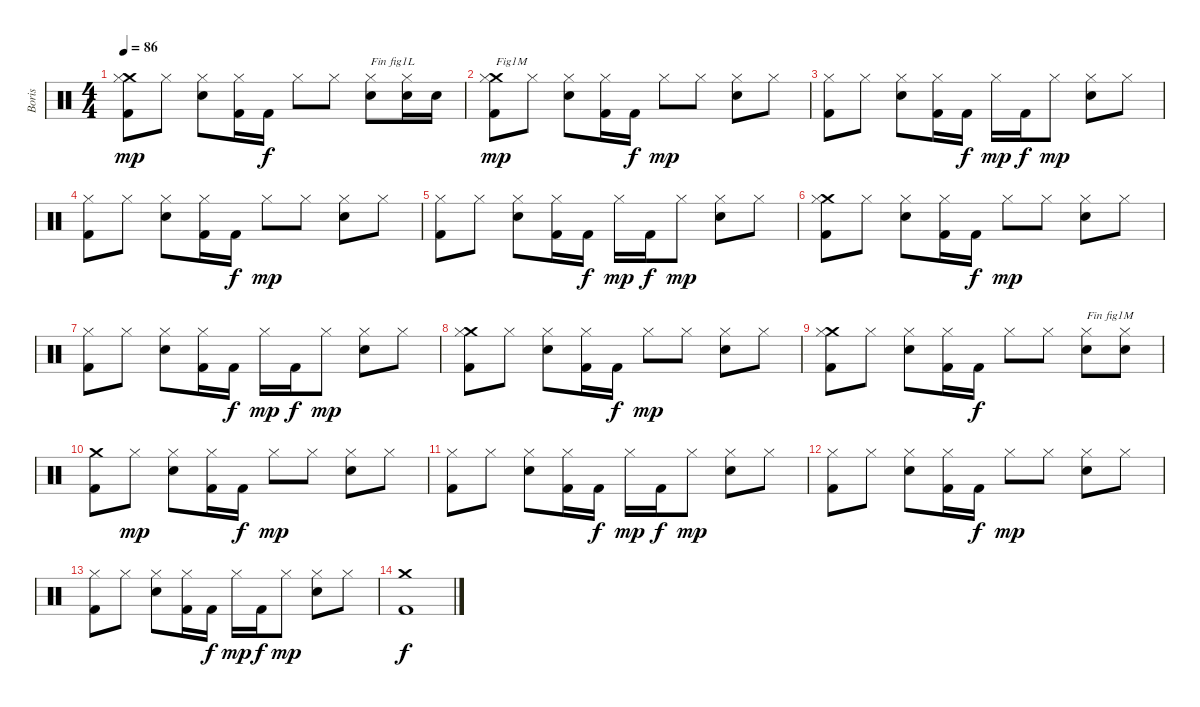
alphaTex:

\track ("Boris" "Boris") {instrument percussion}
\staff {score}
\articulation defaults
\ts (4 4)
\tempo 86
\clef neutral
\ks c
("Kick (hit) 2" "Crash medium (hit)" "Hi-Hat (closed)").8{dy mp} "Hi-Hat (closed)".8 ("Electric Snare (hit)" "Hi-Hat (closed)").8 ("Kick (hit) 2" "Hi-Hat (closed)").16 "Kick (hit) 2".16{dy f} "Hi-Hat (closed)".8 "Hi-Hat (closed)".8 ("Electric Snare (hit)" "Hi-Hat (closed)").8{txt "Fin fig1L"} ("Electric Snare (hit)" "Hi-Hat (closed)").16 "Electric Snare (hit)".16 |
("Kick (hit) 2" "Crash medium (hit)" "Hi-Hat (closed)").8{txt "Fig1M" dy mp} "Hi-Hat (closed)".8 ("Electric Snare (hit)" "Hi-Hat (closed)").8 ("Kick (hit) 2" "Hi-Hat (closed)").16 "Kick (hit) 2".16{dy f} "Hi-Hat (closed)".8{dy mp} "Hi-Hat (closed)".8 ("Electric Snare (hit)" "Hi-Hat (closed)").8 "Hi-Hat (closed)".8 |
("Kick (hit) 2" "Hi-Hat (closed)").8 "Hi-Hat (closed)".8 ("Electric Snare (hit)" "Hi-Hat (closed)").8 ("Kick (hit) 2" "Hi-Hat (closed)").16 "Kick (hit) 2".16{dy f} "Hi-Hat (closed)".16{dy mp} "Kick (hit) 2".16{dy f} "Hi-Hat (closed)".8{dy mp} ("Electric Snare (hit)" "Hi-Hat (closed)").8 "Hi-Hat (closed)".8 |
("Kick (hit) 2" "Hi-Hat (closed)").8 "Hi-Hat (closed)".8 ("Electric Snare (hit)" "Hi-Hat (closed)").8 ("Kick (hit) 2" "Hi-Hat (closed)").16 "Kick (hit) 2".16{dy f} "Hi-Hat (closed)".8{dy mp} "Hi-Hat (closed)".8 ("Electric Snare (hit)" "Hi-Hat (closed)").8 "Hi-Hat (closed)".8 |
("Kick (hit) 2" "Hi-Hat (closed)").8 "Hi-Hat (closed)".8 ("Electric Snare (hit)" "Hi-Hat (closed)").8 ("Kick (hit) 2" "Hi-Hat (closed)").16 "Kick (hit) 2".16{dy f} "Hi-Hat (closed)".16{dy mp} "Kick (hit) 2".16{dy f} "Hi-Hat (closed)".8{dy mp} ("Electric Snare (hit)" "Hi-Hat (closed)").8 "Hi-Hat (closed)".8 |
("Kick (hit) 2" "Crash medium (hit)" "Hi-Hat (closed)").8 "Hi-Hat (closed)".8 ("Electric Snare (hit)" "Hi-Hat (closed)").8 ("Kick (hit) 2" "Hi-Hat (closed)").16 "Kick (hit) 2".16{dy f} "Hi-Hat (closed)".8{dy mp} "Hi-Hat (closed)".8 ("Electric Snare (hit)" "Hi-Hat (closed)").8 "Hi-Hat (closed)".8 |
("Kick (hit) 2" "Hi-Hat (closed)").8 "Hi-Hat (closed)".8 ("Electric Snare (hit)" "Hi-Hat (closed)").8 ("Kick (hit) 2" "Hi-Hat (closed)").16 "Kick (hit) 2".16{dy f} "Hi-Hat (closed)".16{dy mp} "Kick (hit) 2".16{dy f} "Hi-Hat (closed)".8{dy mp} ("Electric Snare (hit)" "Hi-Hat (closed)").8 "Hi-Hat (closed)".8 |
("Kick (hit) 2" "Crash medium (hit)" "Hi-Hat (closed)").8 "Hi-Hat (closed)".8 ("Electric Snare (hit)" "Hi-Hat (closed)").8 ("Kick (hit) 2" "Hi-Hat (closed)").16 "Kick (hit) 2".16{dy f} "Hi-Hat (closed)".8{dy mp} "Hi-Hat (closed)".8 ("Electric Snare (hit)" "Hi-Hat (closed)").8 "Hi-Hat (closed)".8 |
("Kick (hit) 2" "Crash medium (hit)" "Hi-Hat (closed)").8 "Hi-Hat (closed)".8 ("Electric Snare (hit)" "Hi-Hat (closed)").8 ("Kick (hit) 2" "Hi-Hat (closed)").16 "Kick (hit) 2".16{dy f} "Hi-Hat (closed)".8 "Hi-Hat (closed)".8 ("Electric Snare (hit)" "Hi-Hat (closed)").8{txt "Fin fig1M"} ("Electric Snare (hit)" "Hi-Hat (closed)").8 |
("Kick (hit) 2" "Crash medium (hit)").8 "Hi-Hat (closed)".8{dy mp} ("Electric Snare (hit)" "Hi-Hat (closed)").8 ("Kick (hit) 2" "Hi-Hat (closed)").16 "Kick (hit) 2".16{dy f} "Hi-Hat (closed)".8{dy mp} "Hi-Hat (closed)".8 ("Electric Snare (hit)" "Hi-Hat (closed)").8 "Hi-Hat (closed)".8 |
("Kick (hit) 2" "Hi-Hat (closed)").8 "Hi-Hat (closed)".8 ("Electric Snare (hit)" "Hi-Hat (closed)").8 ("Kick (hit) 2" "Hi-Hat (closed)").16 "Kick (hit) 2".16{dy f} "Hi-Hat (closed)".16{dy mp} "Kick (hit) 2".16{dy f} "Hi-Hat (closed)".8{dy mp} ("Electric Snare (hit)" "Hi-Hat (closed)").8 "Hi-Hat (closed)".8 |
("Kick (hit) 2" "Hi-Hat (closed)").8 "Hi-Hat (closed)".8 ("Electric Snare (hit)" "Hi-Hat (closed)").8 ("Kick (hit) 2" "Hi-Hat (closed)").16 "Kick (hit) 2".16{dy f} "Hi-Hat (closed)".8{dy mp} "Hi-Hat (closed)".8 ("Electric Snare (hit)" "Hi-Hat (closed)").8 "Hi-Hat (closed)".8 |
("Kick (hit) 2" "Hi-Hat (closed)").8 "Hi-Hat (closed)".8 ("Electric Snare (hit)" "Hi-Hat (closed)").8 ("Kick (hit) 2" "Hi-Hat (closed)").16 "Kick (hit) 2".16{dy f} "Hi-Hat (closed)".16{dy mp} "Kick (hit) 2".16{dy f} "Hi-Hat (closed)".8{dy mp} ("Electric Snare (hit)" "Hi-Hat (closed)").8 "Hi-Hat (closed)".8 |
("Kick (hit) 2" "Crash medium (hit)").1{dy f}
